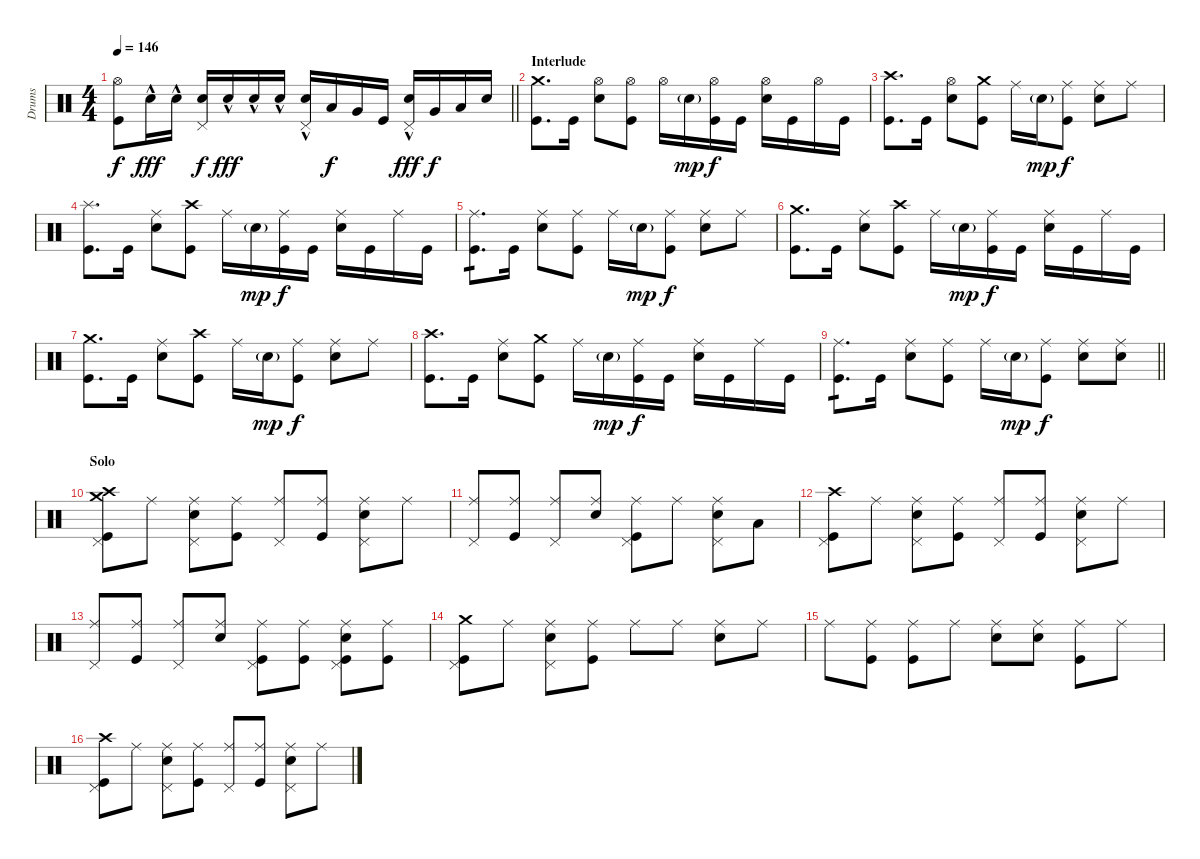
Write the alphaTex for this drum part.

\track ("Drums" "Drums") {instrument percussion}
\staff {score}
\articulation defaults
\ts (4 4)
\tempo 146
\clef neutral
\barLineRight lightlight
\ks c
("Hi-Hat (open)" "Kick (hit)").8{dy f} "Electric Snare (hit)"{hac}.16{dy fff} "Electric Snare (hit)"{hac}.16 ("Pedal Hi-Hat (hit)" "Electric Snare (hit)").16{dy f} "Electric Snare (hit)"{hac}.16{dy fff} "Electric Snare (hit)"{hac}.16 "Electric Snare (hit)"{hac}.16 ("Pedal Hi-Hat (hit)" "Electric Snare (hit)"{hac}).16 "Low Tom (hit)".16{dy f} "Very Low Tom (hit)".16 "Kick (hit)".16 ("Pedal Hi-Hat (hit)" "Electric Snare (hit)"{hac}).16{dy fff} "Very Low Tom (hit)".16{dy f} "Low Floor Tom (hit)".16 "Electric Snare (hit)".16 |
\section ("" "Interlude")
("Crash medium (hit)" "Kick (hit)").8{d} "Kick (hit)".16 ("Hi-Hat (open)" "Electric Snare (hit)").8 ("Hi-Hat (open)" "Kick (hit)").8 "Hi-Hat (open)".16 "Electric Snare (hit)"{g}.16{dy mp} ("Hi-Hat (open)" "Kick (hit)").16{dy f} "Kick (hit)".16 ("Hi-Hat (open)" "Electric Snare (hit)").16 "Kick (hit)".16 "Hi-Hat (open)".16 "Kick (hit)".16 |
("Crash high (hit)" "Kick (hit)").8{d} "Kick (hit)".16 ("Hi-Hat (open)" "Electric Snare (hit)").8 ("Crash medium (hit)" "Kick (hit)").8 "Ride (middle)".16 "Electric Snare (hit)"{g}.16{dy mp} ("Ride (middle)" "Kick (hit)").8{dy f} ("Ride (middle)" "Electric Snare (hit)").8 "Ride (middle)".8 |
("Splash (hit)" "Kick (hit)").8{d} "Kick (hit)".16 ("Ride (middle)" "Electric Snare (hit)").8 ("Crash high (hit)" "Kick (hit)").8 "Ride (middle)".16 "Electric Snare (hit)"{g}.16{dy mp} ("Ride (middle)" "Kick (hit)").16{dy f} "Kick (hit)".16 ("Ride (middle)" "Electric Snare (hit)").16 "Kick (hit)".16 "Ride (middle)".16 "Kick (hit)".16 |
("Ride (middle)" "Kick (hit)").8{d tp 1} "Kick (hit)".16 ("Ride (middle)" "Electric Snare (hit)").8 ("Ride (middle)" "Kick (hit)").8 "Ride (middle)".16 "Electric Snare (hit)"{g}.16{dy mp} ("Ride (middle)" "Kick (hit)").8{dy f} ("Ride (middle)" "Electric Snare (hit)").8 "Ride (middle)".8 |
("Crash medium (hit)" "Kick (hit)").8{d} "Kick (hit)".16 ("Ride (middle)" "Electric Snare (hit)").8 ("Crash high (hit)" "Kick (hit)").8 "Ride (middle)".16 "Electric Snare (hit)"{g}.16{dy mp} ("Ride (middle)" "Kick (hit)").16{dy f} "Kick (hit)".16 ("Ride (middle)" "Electric Snare (hit)").16 "Kick (hit)".16 "Ride (middle)".16 "Kick (hit)".16 |
("Crash medium (hit)" "Kick (hit)").8{d} "Kick (hit)".16 ("Ride (middle)" "Electric Snare (hit)").8 ("Crash high (hit)" "Kick (hit)").8 "Ride (middle)".16 "Electric Snare (hit)"{g}.16{dy mp} ("Ride (middle)" "Kick (hit)").8{dy f} ("Ride (middle)" "Electric Snare (hit)").8 "Ride (middle)".8 |
("Crash high (hit)" "Kick (hit)").8{d} "Kick (hit)".16 ("Ride (middle)" "Electric Snare (hit)").8 ("Crash medium (hit)" "Kick (hit)").8 "Ride (middle)".16 "Electric Snare (hit)"{g}.16{dy mp} ("Ride (middle)" "Kick (hit)").16{dy f} "Kick (hit)".16 ("Ride (middle)" "Electric Snare (hit)").16 "Kick (hit)".16 "Ride (middle)".16 "Kick (hit)".16 |
\barLineRight lightlight
("Ride (middle)" "Kick (hit)").8{d tp 1} "Kick (hit)".16 ("Ride (middle)" "Electric Snare (hit)").8 ("Ride (middle)" "Kick (hit)").8 "Ride (middle)".16 "Electric Snare (hit)"{g}.16{dy mp} ("Ride (middle)" "Kick (hit)").8{dy f} ("Ride (middle)" "Electric Snare (hit)").8 ("Ride (middle)" "Electric Snare (hit)").8 |
\section ("" "Solo")
("Crash medium (hit)" "Crash high (hit)" "Pedal Hi-Hat (hit)" "Kick (hit)").8 "Ride (middle)".8 ("Ride (middle)" "Pedal Hi-Hat (hit)" "Electric Snare (hit)").8 ("Ride (middle)" "Kick (hit)").8 ("Ride (middle)" "Pedal Hi-Hat (hit)").8 ("Ride (middle)" "Kick (hit)").8 ("Ride (middle)" "Pedal Hi-Hat (hit)" "Electric Snare (hit)").8 "Ride (middle)".8 |
("Ride (middle)" "Pedal Hi-Hat (hit)").8 ("Ride (middle)" "Kick (hit)").8 ("Ride (middle)" "Pedal Hi-Hat (hit)").8 ("Ride (middle)" "Electric Snare (hit)").8 ("Ride (middle)" "Pedal Hi-Hat (hit)" "Kick (hit)").8 "Ride (middle)".8 ("Ride (middle)" "Pedal Hi-Hat (hit)" "Electric Snare (hit)").8 "Low Tom (hit)".8 |
("Crash high (hit)" "Pedal Hi-Hat (hit)" "Kick (hit)").8 "Ride (middle)".8 ("Ride (middle)" "Pedal Hi-Hat (hit)" "Electric Snare (hit)").8 ("Ride (middle)" "Kick (hit)").8 ("Ride (middle)" "Pedal Hi-Hat (hit)").8 ("Ride (middle)" "Kick (hit)").8 ("Ride (middle)" "Pedal Hi-Hat (hit)" "Electric Snare (hit)").8 "Ride (middle)".8 |
("Ride (middle)" "Pedal Hi-Hat (hit)").8 ("Ride (middle)" "Kick (hit)").8 ("Ride (middle)" "Pedal Hi-Hat (hit)").8 ("Ride (middle)" "Electric Snare (hit)").8 ("Ride (middle)" "Pedal Hi-Hat (hit)" "Kick (hit)").8 ("Ride (middle)" "Kick (hit)").8 ("Ride (middle)" "Pedal Hi-Hat (hit)" "Electric Snare (hit)" "Kick (hit)").8 ("Ride (middle)" "Kick (hit)").8 |
("Crash medium (hit)" "Pedal Hi-Hat (hit)" "Kick (hit)").8 "Ride (middle)".8 ("Ride (middle)" "Pedal Hi-Hat (hit)" "Electric Snare (hit)").8 ("Ride (middle)" "Kick (hit)").8 "Ride (middle)".8 "Ride (middle)".8 ("Ride (middle)" "Electric Snare (hit)").8 "Ride (middle)".8 |
"Ride (middle)".8 ("Ride (middle)" "Kick (hit)").8 ("Ride (middle)" "Kick (hit)").8 "Ride (middle)".8 ("Ride (middle)" "Electric Snare (hit)").8 ("Ride (middle)" "Electric Snare (hit)").8 ("Ride (middle)" "Kick (hit)").8 "Ride (middle)".8 |
("Crash high (hit)" "Pedal Hi-Hat (hit)" "Kick (hit)").8 "Ride (middle)".8 ("Ride (middle)" "Pedal Hi-Hat (hit)" "Electric Snare (hit)").8 ("Ride (middle)" "Kick (hit)").8 ("Ride (middle)" "Pedal Hi-Hat (hit)").8 ("Ride (middle)" "Kick (hit)").8 ("Ride (middle)" "Pedal Hi-Hat (hit)" "Electric Snare (hit)").8 "Ride (middle)".8
